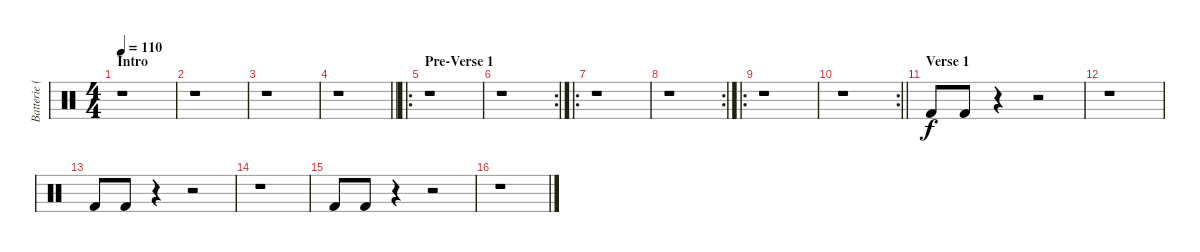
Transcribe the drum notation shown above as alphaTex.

\track ("Batterie (Fanny)" "Batterie (") {instrument percussion}
\staff {score}
\articulation defaults
\ts (4 4)
\section ("" "Intro")
\tempo 110
\clef neutral
\ks c
r.1{dy f} |
r.1 |
r.1 |
\barLineRight lightlight
r.1 |
\ro
\section ("" "Pre-Verse 1")
r.1 |
\rc 2
r.1 |
\ro
r.1 |
\rc 2
r.1 |
\ro
r.1 |
\rc 2
\barLineRight lightlight
r.1 |
\section ("" "Verse 1")
"Kick (hit) 2".8 "Kick (hit) 2".8 r.4 r.2 |
r.1 |
"Kick (hit) 2".8 "Kick (hit) 2".8 r.4 r.2 |
r.1 |
"Kick (hit) 2".8 "Kick (hit) 2".8 r.4 r.2 |
r.1
